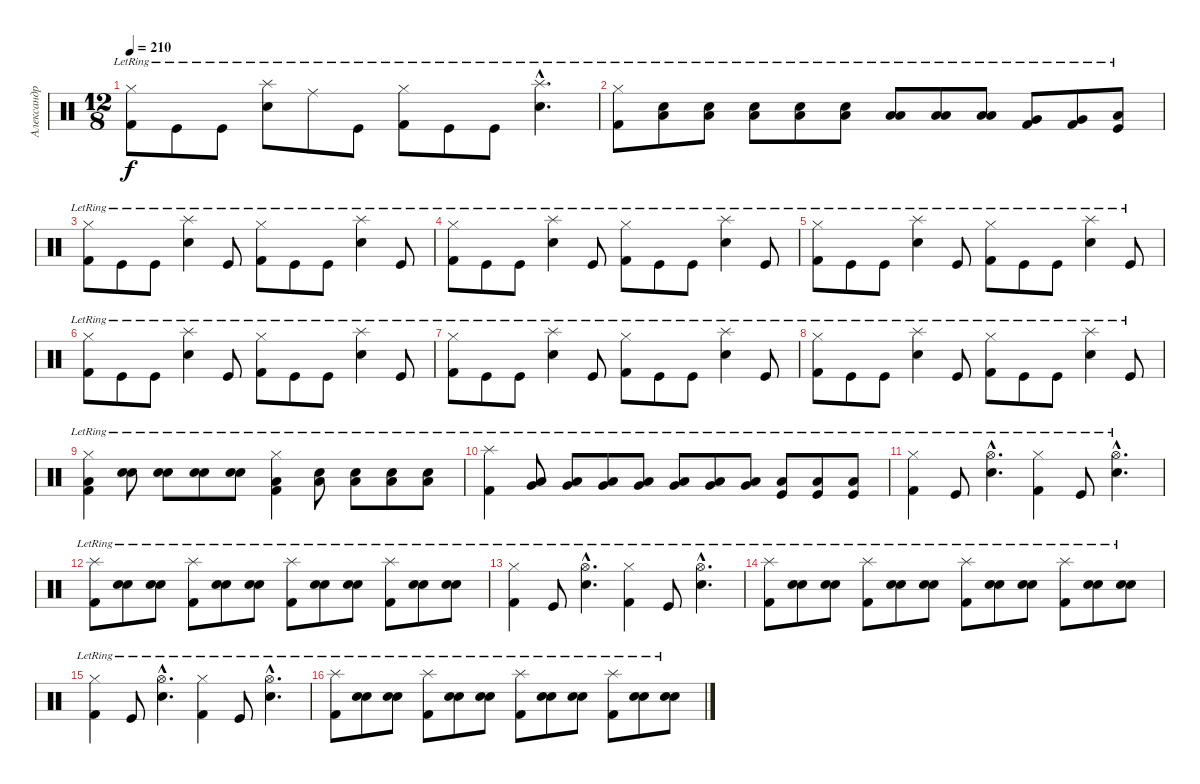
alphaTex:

\track ("Александр Манякин" "Александр ") {instrument percussion}
\staff {score}
\articulation defaults
\ts (12 8)
\tempo 210
\clef neutral
\ks c
("Hi-Hat (closed)"{lr} "Kick (hit) 2"{lr}).8{dy f} "Kick (hit)"{lr}.8 "Kick (hit)"{lr}.8 ("Splash (hit)"{lr} "Snare (hit) 2"{lr}).8 "Ride (middle)"{lr}.8 "Kick (hit)"{lr}.8 ("Hi-Hat (closed)"{lr} "Kick (hit) 2"{lr}).8 "Kick (hit)"{lr}.8 "Kick (hit)"{lr}.8 ("Splash (hit)"{hac lr} "Snare (hit) 2"{hac lr}).4{d} |
("Hi-Hat (closed)"{lr} "Kick (hit) 2"{lr}).8 ("Electric Snare (hit)"{lr} "Low Tom (hit)"{lr}).8 ("Low Tom (hit)"{lr} "Snare (hit) 2"{lr}).8 ("Low Tom (hit)"{lr} "Snare (hit) 2"{lr}).8 ("Low Tom (hit)"{lr} "Snare (hit) 2"{lr}).8 ("Low Tom (hit)"{lr} "Snare (hit) 2"{lr}).8 ("Low Tom (hit)"{lr} "Low Floor Tom (hit)"{lr}).8 ("Low Floor Tom (hit)"{lr} "Low Tom (hit)"{lr}).8 ("Low Floor Tom (hit)"{lr} "Low Tom (hit)"{lr}).8 ("Kick (hit) 2"{lr} "Very Low Tom (hit)"{lr}).8 ("Kick (hit) 2"{lr} "Very Low Tom (hit)"{lr}).8 ("Kick (hit)"{lr} "Low Floor Tom (hit)"{lr}).8 |
("Hi-Hat (closed)"{lr} "Kick (hit) 2"{lr}).8 "Kick (hit)"{lr}.8 "Kick (hit)"{lr}.8 ("Splash (hit)"{lr} "Snare (hit) 2"{lr}).4 "Kick (hit)"{lr}.8 ("Hi-Hat (closed)"{lr} "Kick (hit) 2"{lr}).8 "Kick (hit)"{lr}.8 "Kick (hit)"{lr}.8 ("Splash (hit)"{lr} "Snare (hit) 2"{lr}).4 "Kick (hit)"{lr}.8 |
("Hi-Hat (closed)"{lr} "Kick (hit) 2"{lr}).8 "Kick (hit)"{lr}.8 "Kick (hit)"{lr}.8 ("Splash (hit)"{lr} "Snare (hit) 2"{lr}).4 "Kick (hit)"{lr}.8 ("Hi-Hat (closed)"{lr} "Kick (hit) 2"{lr}).8 "Kick (hit)"{lr}.8 "Kick (hit)"{lr}.8 ("Splash (hit)"{lr} "Snare (hit) 2"{lr}).4 "Kick (hit)"{lr}.8 |
("Hi-Hat (closed)"{lr} "Kick (hit) 2"{lr}).8 "Kick (hit)"{lr}.8 "Kick (hit)"{lr}.8 ("Splash (hit)"{lr} "Snare (hit) 2"{lr}).4 "Kick (hit)"{lr}.8 ("Hi-Hat (closed)"{lr} "Kick (hit) 2"{lr}).8 "Kick (hit)"{lr}.8 "Kick (hit)"{lr}.8 ("Splash (hit)"{lr} "Snare (hit) 2"{lr}).4 "Kick (hit)"{lr}.8 |
("Hi-Hat (closed)"{lr} "Kick (hit) 2"{lr}).8 "Kick (hit)"{lr}.8 "Kick (hit)"{lr}.8 ("Splash (hit)"{lr} "Snare (hit) 2"{lr}).4 "Kick (hit)"{lr}.8 ("Hi-Hat (closed)"{lr} "Kick (hit) 2"{lr}).8 "Kick (hit)"{lr}.8 "Kick (hit)"{lr}.8 ("Splash (hit)"{lr} "Snare (hit) 2"{lr}).4 "Kick (hit)"{lr}.8 |
("Hi-Hat (closed)"{lr} "Kick (hit) 2"{lr}).8 "Kick (hit)"{lr}.8 "Kick (hit)"{lr}.8 ("Splash (hit)"{lr} "Snare (hit) 2"{lr}).4 "Kick (hit)"{lr}.8 ("Hi-Hat (closed)"{lr} "Kick (hit) 2"{lr}).8 "Kick (hit)"{lr}.8 "Kick (hit)"{lr}.8 ("Splash (hit)"{lr} "Snare (hit) 2"{lr}).4 "Kick (hit)"{lr}.8 |
("Hi-Hat (closed)"{lr} "Kick (hit) 2"{lr}).8 "Kick (hit)"{lr}.8 "Kick (hit)"{lr}.8 ("Splash (hit)"{lr} "Snare (hit) 2"{lr}).4 "Kick (hit)"{lr}.8 ("Hi-Hat (closed)"{lr} "Kick (hit) 2"{lr}).8 "Kick (hit)"{lr}.8 "Kick (hit)"{lr}.8 ("Splash (hit)"{lr} "Snare (hit) 2"{lr}).4 "Kick (hit)"{lr}.8 |
("Low Floor Tom (hit)"{lr} "Hi-Hat (closed)"{lr} "Kick (hit) 2"{lr}).4 ("Electric Snare (hit)"{lr} "Snare (hit) 2"{lr}).8 ("Electric Snare (hit)"{lr} "Snare (hit) 2"{lr}).8 ("Electric Snare (hit)"{lr} "Snare (hit) 2"{lr}).8 ("Electric Snare (hit)"{lr} "Snare (hit) 2"{lr}).8 ("Low Floor Tom (hit)"{lr} "Hi-Hat (closed)"{lr} "Kick (hit) 2"{lr}).4 ("Low Tom (hit)"{lr} "Snare (hit) 2"{lr}).8 ("Low Tom (hit)"{lr} "Snare (hit) 2"{lr}).8 ("Low Tom (hit)"{lr} "Snare (hit) 2"{lr}).8 ("Low Tom (hit)"{lr} "Snare (hit) 2"{lr}).8 |
("Splash (hit)"{lr} "Kick (hit) 2"{lr}).4 ("Very Low Tom (hit)"{lr} "Low Tom (hit)"{lr}).8 ("Very Low Tom (hit)"{lr} "Low Tom (hit)"{lr}).8 ("Very Low Tom (hit)"{lr} "Low Tom (hit)"{lr}).8 ("Very Low Tom (hit)"{lr} "Low Tom (hit)"{lr}).8 ("Low Floor Tom (hit)"{lr} "Very Low Tom (hit)"{lr}).8 ("Low Floor Tom (hit)"{lr} "Very Low Tom (hit)"{lr}).8 ("Low Floor Tom (hit)"{lr} "Very Low Tom (hit)"{lr}).8 ("Kick (hit)"{lr} "Low Floor Tom (hit)"{lr}).8 ("Kick (hit)"{lr} "Low Floor Tom (hit)"{lr}).8 ("Kick (hit)"{lr} "Low Floor Tom (hit)"{lr}).8 |
("Hi-Hat (closed)"{lr} "Kick (hit) 2"{lr}).4 "Kick (hit)"{lr}.8 ("Hi-Hat (open)"{hac lr} "Snare (hit) 2"{hac lr}).4{d} ("Hi-Hat (closed)"{lr} "Kick (hit) 2"{lr}).4 "Kick (hit)"{lr}.8 ("Hi-Hat (open)"{hac lr} "Snare (hit) 2"{hac lr}).4{d} |
("Splash (hit)"{lr} "Kick (hit) 2"{lr}).8 ("Electric Snare (hit)"{lr} "Snare (hit) 2"{lr}).8 ("Electric Snare (hit)"{lr} "Snare (hit) 2"{lr}).8 ("Splash (hit)"{lr} "Kick (hit) 2"{lr}).8 ("Electric Snare (hit)"{lr} "Snare (hit) 2"{lr}).8 ("Electric Snare (hit)"{lr} "Snare (hit) 2"{lr}).8 ("Splash (hit)"{lr} "Kick (hit) 2"{lr}).8 ("Electric Snare (hit)"{lr} "Snare (hit) 2"{lr}).8 ("Electric Snare (hit)"{lr} "Snare (hit) 2"{lr}).8 ("Splash (hit)"{lr} "Kick (hit) 2"{lr}).8 ("Snare (hit) 2"{lr} "Electric Snare (hit)"{lr}).8 ("Snare (hit) 2"{lr} "Electric Snare (hit)"{lr}).8 |
("Hi-Hat (closed)"{lr} "Kick (hit) 2"{lr}).4 "Kick (hit)"{lr}.8 ("Hi-Hat (open)"{hac lr} "Snare (hit) 2"{hac lr}).4{d} ("Hi-Hat (closed)"{lr} "Kick (hit) 2"{lr}).4 "Kick (hit)"{lr}.8 ("Hi-Hat (open)"{hac lr} "Snare (hit) 2"{hac lr}).4{d} |
("Splash (hit)"{lr} "Kick (hit) 2"{lr}).8 ("Electric Snare (hit)"{lr} "Snare (hit) 2"{lr}).8 ("Electric Snare (hit)"{lr} "Snare (hit) 2"{lr}).8 ("Splash (hit)"{lr} "Kick (hit) 2"{lr}).8 ("Electric Snare (hit)"{lr} "Snare (hit) 2"{lr}).8 ("Electric Snare (hit)"{lr} "Snare (hit) 2"{lr}).8 ("Splash (hit)"{lr} "Kick (hit) 2"{lr}).8 ("Electric Snare (hit)"{lr} "Snare (hit) 2"{lr}).8 ("Electric Snare (hit)"{lr} "Snare (hit) 2"{lr}).8 ("Splash (hit)"{lr} "Kick (hit) 2"{lr}).8 ("Snare (hit) 2"{lr} "Electric Snare (hit)"{lr}).8 ("Snare (hit) 2"{lr} "Electric Snare (hit)"{lr}).8 |
("Hi-Hat (closed)"{lr} "Kick (hit) 2"{lr}).4 "Kick (hit)"{lr}.8 ("Hi-Hat (open)"{hac lr} "Snare (hit) 2"{hac lr}).4{d} ("Hi-Hat (closed)"{lr} "Kick (hit) 2"{lr}).4 "Kick (hit)"{lr}.8 ("Hi-Hat (open)"{hac lr} "Snare (hit) 2"{hac lr}).4{d} |
("Splash (hit)"{lr} "Kick (hit) 2"{lr}).8 ("Electric Snare (hit)"{lr} "Snare (hit) 2"{lr}).8 ("Electric Snare (hit)"{lr} "Snare (hit) 2"{lr}).8 ("Splash (hit)"{lr} "Kick (hit) 2"{lr}).8 ("Electric Snare (hit)"{lr} "Snare (hit) 2"{lr}).8 ("Electric Snare (hit)"{lr} "Snare (hit) 2"{lr}).8 ("Splash (hit)"{lr} "Kick (hit) 2"{lr}).8 ("Electric Snare (hit)"{lr} "Snare (hit) 2"{lr}).8 ("Electric Snare (hit)"{lr} "Snare (hit) 2"{lr}).8 ("Splash (hit)"{lr} "Kick (hit) 2"{lr}).8 ("Snare (hit) 2"{lr} "Electric Snare (hit)"{lr}).8 ("Snare (hit) 2"{lr} "Electric Snare (hit)"{lr}).8
